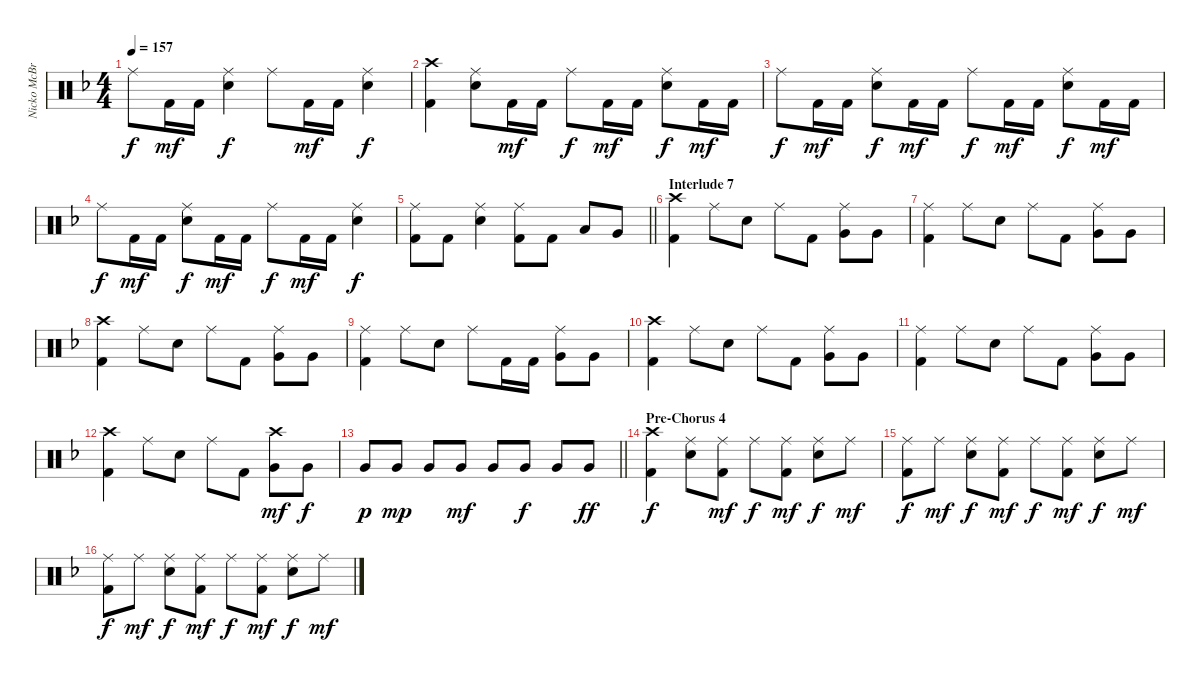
\track ("Nicko McBrain" "Nicko McBr") {instrument percussion}
\staff {score}
\articulation defaults
\ts (4 4)
\tempo 157
\clef neutral
\ks f "Ride (middle)".8{dy f} "Kick (hit) 2".16{dy mf} "Kick (hit) 2".16
("Ride (middle)" "Electric Snare (hit)").4{dy f} "Ride (middle)".8 "Kick (hit) 2".16{dy mf} "Kick (hit) 2".16 ("Ride (middle)" "Electric Snare (hit)").4{dy f} |
("Crash high (hit)" "Kick (hit) 2").4 ("Ride (middle)" "Electric Snare (hit)").8 "Kick (hit) 2".16{dy mf} "Kick (hit) 2".16 "Ride (middle)".8{dy f} "Kick (hit) 2".16{dy mf} "Kick (hit) 2".16 ("Ride (middle)" "Electric Snare (hit)").8{dy f} "Kick (hit) 2".16{dy mf} "Kick (hit) 2".16 |
"Ride (middle)".8{dy f} "Kick (hit) 2".16{dy mf} "Kick (hit) 2".16 ("Ride (middle)" "Electric Snare (hit)").8{dy f} "Kick (hit) 2".16{dy mf} "Kick (hit) 2".16 "Ride (middle)".8{dy f} "Kick (hit) 2".16{dy mf} "Kick (hit) 2".16 ("Ride (middle)" "Electric Snare (hit)").8{dy f} "Kick (hit) 2".16{dy mf} "Kick (hit) 2".16 |
"Ride (middle)".8{dy f} "Kick (hit) 2".16{dy mf} "Kick (hit) 2".16 ("Ride (middle)" "Electric Snare (hit)").8{dy f} "Kick (hit) 2".16{dy mf} "Kick (hit) 2".16 "Ride (middle)".8{dy f} "Kick (hit) 2".16{dy mf} "Kick (hit) 2".16 ("Ride (middle)" "Electric Snare (hit)").4{dy f} |
\barLineRight lightlight
("Ride (middle)" "Kick (hit) 2").8 "Kick (hit) 2".8 ("Ride (middle)" "Electric Snare (hit)").4 ("Ride (middle)" "Kick (hit) 2").8 "Kick (hit) 2".8 "Low Tom (hit)".8 "Very Low Tom (hit)".8 |
\section ("" "Interlude 7")
("Crash high (hit)" "Kick (hit) 2").4 "Ride (middle)".8 "Electric Snare (hit)".8 "Ride (middle)".8 "Kick (hit) 2".8 ("Ride (middle)" "Very Low Tom (hit)").8 "Very Low Tom (hit)".8 |
("Ride (middle)" "Kick (hit) 2").4 "Ride (middle)".8 "Electric Snare (hit)".8 "Ride (middle)".8 "Kick (hit) 2".8 ("Ride (middle)" "Very Low Tom (hit)").8 "Very Low Tom (hit)".8 |
("Crash high (hit)" "Kick (hit) 2").4 "Ride (middle)".8 "Electric Snare (hit)".8 "Ride (middle)".8 "Kick (hit) 2".8 ("Ride (middle)" "Very Low Tom (hit)").8 "Very Low Tom (hit)".8 |
("Ride (middle)" "Kick (hit) 2").4 "Ride (middle)".8 "Electric Snare (hit)".8 "Ride (middle)".8 "Kick (hit) 2".16 "Kick (hit) 2".16 ("Ride (middle)" "Very Low Tom (hit)").8 "Very Low Tom (hit)".8 |
("Crash high (hit)" "Kick (hit) 2").4 "Ride (middle)".8 "Electric Snare (hit)".8 "Ride (middle)".8 "Kick (hit) 2".8 ("Ride (middle)" "Very Low Tom (hit)").8 "Very Low Tom (hit)".8 |
("Ride (middle)" "Kick (hit) 2").4 "Ride (middle)".8 "Electric Snare (hit)".8 "Ride (middle)".8 "Kick (hit) 2".8 ("Ride (middle)" "Very Low Tom (hit)").8 "Very Low Tom (hit)".8 |
("Crash high (hit)" "Kick (hit) 2").4 "Ride (middle)".8 "Electric Snare (hit)".8 "Ride (middle)".8 "Kick (hit) 2".8 ("Crash high (hit)" "Very Low Tom (hit)").8{dy mf} "Very Low Tom (hit)".8{dy f} |
\barLineRight lightlight "Very Low Tom (hit)".8{dy p} "Very Low Tom (hit)".8{dy mp} "Very Low Tom (hit)".8 "Very Low Tom (hit)".8{dy mf} "Very Low Tom (hit)".8 "Very Low Tom (hit)".8{dy f} "Very Low Tom (hit)".8 "Very Low Tom (hit)".8{dy ff}
|
\section ("" "Pre-Chorus 4")
("Crash high (hit)" "Kick (hit) 2").4{dy f} ("Ride (middle)" "Electric Snare (hit)").8 ("Ride (middle)" "Kick (hit) 2").8{dy mf} "Ride (middle)".8{dy f} ("Ride (middle)" "Kick (hit) 2").8{dy mf} ("Ride (middle)" "Electric Snare (hit)").8{dy f} "Ride (middle)".8{dy mf} |
("Ride (middle)" "Kick (hit) 2").8{dy f} "Ride (middle)".8{dy mf} ("Ride (middle)" "Electric Snare (hit)").8{dy f} ("Ride (middle)" "Kick (hit) 2").8{dy mf} "Ride (middle)".8{dy f} ("Ride (middle)" "Kick (hit) 2").8{dy mf} ("Ride (middle)" "Electric Snare (hit)").8{dy f} "Ride (middle)".8{dy mf} |
("Ride (middle)" "Kick (hit) 2").8{dy f} "Ride (middle)".8{dy mf} ("Ride (middle)" "Electric Snare (hit)").8{dy f} ("Ride (middle)" "Kick (hit) 2").8{dy mf} "Ride (middle)".8{dy f} ("Ride (middle)" "Kick (hit) 2").8{dy mf} ("Ride (middle)" "Electric Snare (hit)").8{dy f} "Ride (middle)".8{dy mf}
